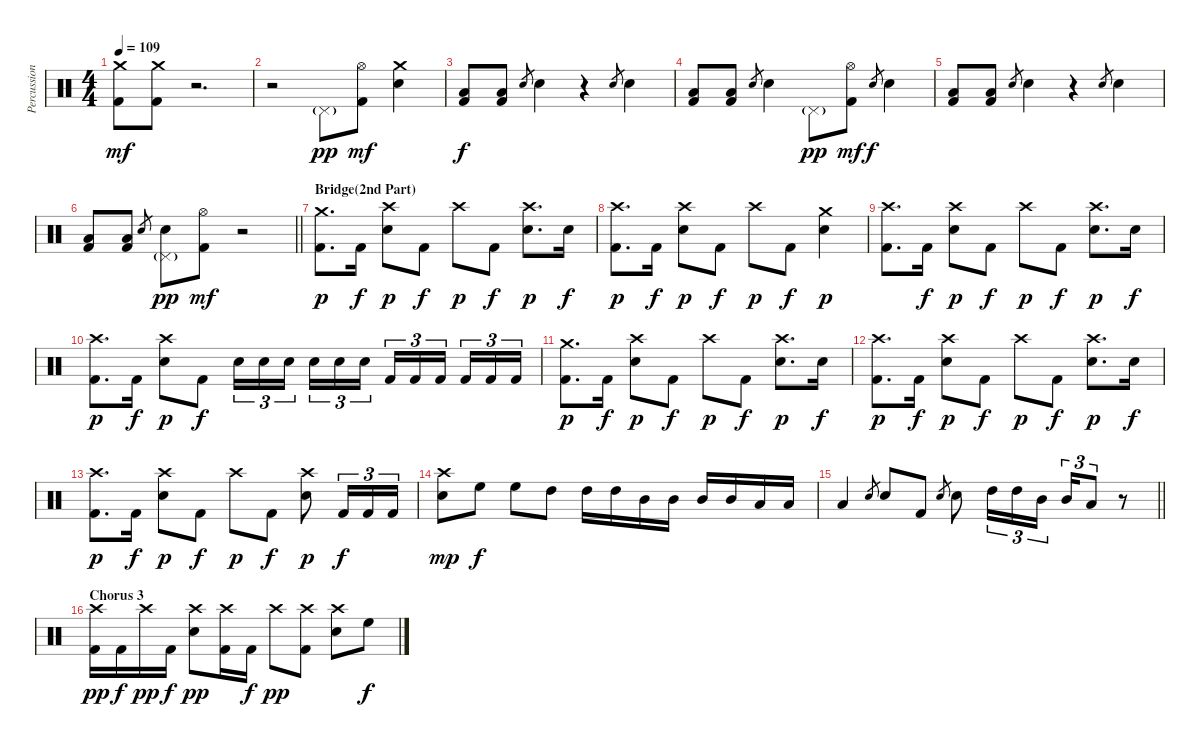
\track ("Percussions" "Percussion") {instrument percussion}
\staff {score}
\articulation defaults
\ts (4 4)
\tempo 109
\clef neutral
\ks c
("Crash medium (hit)" "Kick (hit) 2").8{dy mf} ("Crash medium (hit)" "Kick (hit) 2").8 r.2{d} |
r.2 "Pedal Hi-Hat (hit)"{g}.8{dy pp} ("Hi-Hat (open)" "Kick (hit) 2").8{dy mf} ("Crash medium (hit)" "Electric Snare (hit)").4 |
("Low Floor Tom (hit)" "Kick (hit) 2").8{dy f} ("Low Floor Tom (hit)" "Kick (hit) 2").8 "Electric Snare (hit)".8{gr} "Electric Snare (hit)".4 r.4 "Electric Snare (hit)".8{gr} "Electric Snare (hit)".4 |
("Low Floor Tom (hit)" "Kick (hit) 2").8 ("Low Floor Tom (hit)" "Kick (hit) 2").8 "Electric Snare (hit)".8{gr} "Electric Snare (hit)".4 "Pedal Hi-Hat (hit)"{g}.8{dy pp} ("Hi-Hat (open)" "Kick (hit) 2").8{dy mf} "Electric Snare (hit)".8{gr dy f} "Electric Snare (hit)".4 |
("Low Floor Tom (hit)" "Kick (hit) 2").8 ("Low Floor Tom (hit)" "Kick (hit) 2").8 "Electric Snare (hit)".8{gr} "Electric Snare (hit)".4 r.4 "Electric Snare (hit)".8{gr} "Electric Snare (hit)".4 |
\barLineRight lightlight
("Low Floor Tom (hit)" "Kick (hit) 2").8 ("Low Floor Tom (hit)" "Kick (hit) 2").8 "Electric Snare (hit)".8{gr} ("Pedal Hi-Hat (hit)"{g} "Electric Snare (hit)").8{dy pp} ("Hi-Hat (open)" "Kick (hit) 2").8{dy mf} r.2 |
\section ("" "Bridge(2nd Part)")
("Crash medium (hit)" "Kick (hit) 2").8{d dy p} "Kick (hit) 2".16{dy f} ("Crash high (hit)" "Electric Snare (hit)").8{dy p} "Kick (hit) 2".8{dy f} "Crash high (hit)".8{dy p} "Kick (hit) 2".8{dy f} ("Crash high (hit)" "Electric Snare (hit)").8{d dy p} "Electric Snare (hit)".16{dy f} |
("Crash high (hit)" "Kick (hit) 2").8{d dy p} "Kick (hit) 2".16{dy f} ("Crash high (hit)" "Electric Snare (hit)").8{dy p} "Kick (hit) 2".8{dy f} "Crash high (hit)".8{dy p} "Kick (hit) 2".8{dy f} ("Crash medium (hit)" "Electric Snare (hit)").4{dy p} |
("Crash high (hit)" "Kick (hit) 2").8{d} "Kick (hit) 2".16{dy f} ("Crash high (hit)" "Electric Snare (hit)").8{dy p} "Kick (hit) 2".8{dy f} "Crash high (hit)".8{dy p} "Kick (hit) 2".8{dy f} ("Crash high (hit)" "Electric Snare (hit)").8{d dy p} "Electric Snare (hit)".16{dy f} |
("Crash high (hit)" "Kick (hit) 2").8{d dy p} "Kick (hit) 2".16{dy f} ("Crash high (hit)" "Electric Snare (hit)").8{dy p} "Kick (hit) 2".8{dy f} "Electric Snare (hit)".16{tu (3 2)} "Electric Snare (hit)".16{tu (3 2)} "Electric Snare (hit)".16{tu (3 2) beam splitsecondary} "Electric Snare (hit)".16{tu (3 2)} "Electric Snare (hit)".16{tu (3 2)} "Electric Snare (hit)".16{tu (3 2)} "Kick (hit) 2".16{tu (3 2)} "Kick (hit) 2".16{tu (3 2)} "Kick (hit) 2".16{tu (3 2) beam splitsecondary} "Kick (hit) 2".16{tu (3 2)} "Kick (hit) 2".16{tu (3 2)} "Kick (hit) 2".16{tu (3 2)} |
("Crash medium (hit)" "Kick (hit) 2").8{d dy p} "Kick (hit) 2".16{dy f} ("Crash high (hit)" "Electric Snare (hit)").8{dy p} "Kick (hit) 2".8{dy f} "Crash high (hit)".8{dy p} "Kick (hit) 2".8{dy f} ("Crash high (hit)" "Electric Snare (hit)").8{d dy p} "Electric Snare (hit)".16{dy f} |
("Crash high (hit)" "Kick (hit) 2").8{d dy p} "Kick (hit) 2".16{dy f} ("Crash high (hit)" "Electric Snare (hit)").8{dy p} "Kick (hit) 2".8{dy f} "Crash high (hit)".8{dy p} "Kick (hit) 2".8{dy f} ("Crash high (hit)" "Electric Snare (hit)").8{d dy p} "Electric Snare (hit)".16{dy f} |
("Crash high (hit)" "Kick (hit) 2").8{d dy p} "Kick (hit) 2".16{dy f} ("Crash high (hit)" "Electric Snare (hit)").8{dy p} "Kick (hit) 2".8{dy f} "Crash high (hit)".8{dy p} "Kick (hit) 2".8{dy f} ("Crash high (hit)" "Electric Snare (hit)").8{dy p} "Kick (hit) 2".16{tu (3 2) dy f} "Kick (hit) 2".16{tu (3 2)} "Kick (hit) 2".16{tu (3 2)} |
("Crash high (hit)" "Electric Snare (hit)").8{dy mp} "High Floor Tom (hit)".8{dy f} "High Floor Tom (hit)".8 "High Tom (hit)".8 "High Tom (hit)".16 "High Tom (hit)".16 "Mid Tom (hit)".16 "Mid Tom (hit)".16 "Mid Tom (hit)".16 "Mid Tom (hit)".16 "Low Tom (hit)".16 "Low Tom (hit)".16 |
\barLineRight lightlight "Low Tom (hit)".4 "Electric Snare (hit)".8{gr} "Electric Snare (hit)".8 "Kick (hit) 2".8 "Electric Snare (hit)".8{gr} "Electric Snare (hit)".8 "High Tom (hit)".16{tu (3 2)} "High Tom (hit)".16{tu (3 2)} "Mid Tom (hit)".16{tu (3 2)} "Mid Tom (hit)".16{tu (3 2)} "Low Tom (hit)".8{tu (3 2)}
r.8 |
\section ("" "Chorus 3")
("Crash high (hit)" "Kick (hit) 2").16{dy pp} "Kick (hit) 2".16{dy f} "Crash high (hit)".16{dy pp} "Kick (hit) 2".16{dy f} ("Crash high (hit)" "Electric Snare (hit)").8{dy pp} ("Crash high (hit)" "Kick (hit) 2").16 "Kick (hit) 2".16{dy f} "Crash high (hit)".8{dy pp} ("Crash high (hit)" "Kick (hit) 2").8 ("Crash high (hit)" "Electric Snare (hit)").8 "High Floor Tom (hit)".8{dy f}
